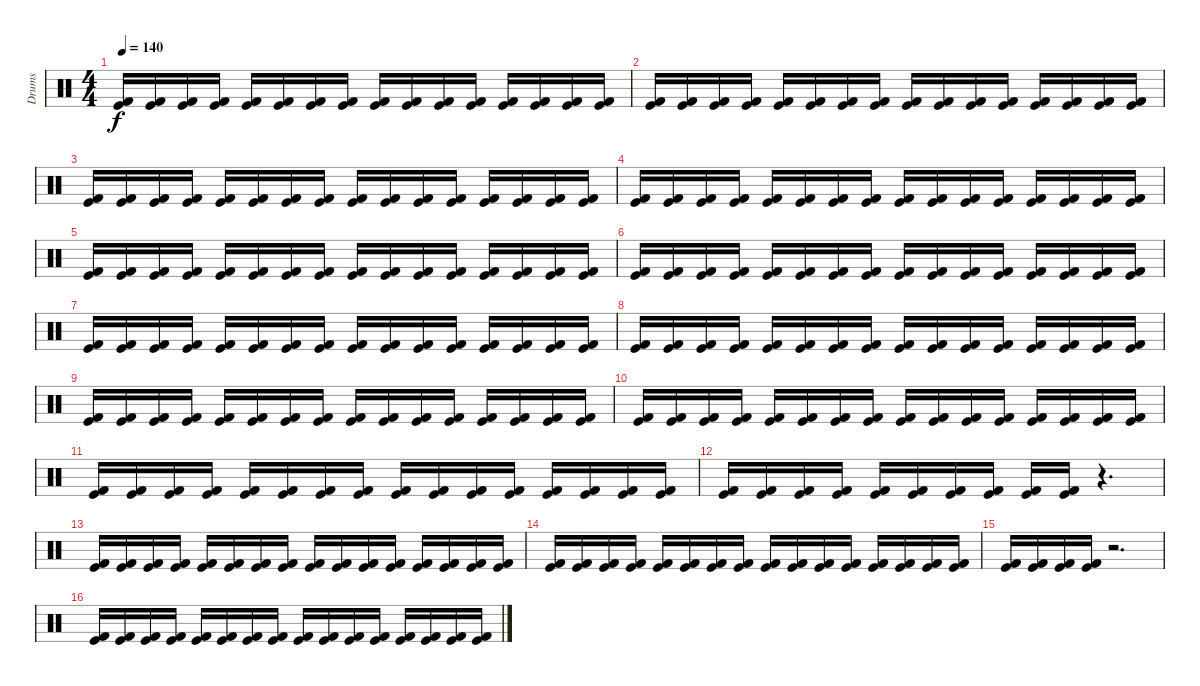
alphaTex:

\track ("Drums" "Drums") {instrument percussion}
\staff {score}
\articulation defaults
\ts (4 4)
\tempo 140
\clef neutral
\ks c
("Kick (hit) 2" "Kick (hit)").16{dy f} ("Kick (hit) 2" "Kick (hit)").16 ("Kick (hit) 2" "Kick (hit)").16 ("Kick (hit) 2" "Kick (hit)").16 ("Kick (hit) 2" "Kick (hit)").16 ("Kick (hit) 2" "Kick (hit)").16 ("Kick (hit) 2" "Kick (hit)").16 ("Kick (hit) 2" "Kick (hit)").16 ("Kick (hit) 2" "Kick (hit)").16 ("Kick (hit) 2" "Kick (hit)").16 ("Kick (hit) 2" "Kick (hit)").16 ("Kick (hit) 2" "Kick (hit)").16 ("Kick (hit) 2" "Kick (hit)").16 ("Kick (hit) 2" "Kick (hit)").16 ("Kick (hit) 2" "Kick (hit)").16 ("Kick (hit) 2" "Kick (hit)").16 |
("Kick (hit) 2" "Kick (hit)").16 ("Kick (hit) 2" "Kick (hit)").16 ("Kick (hit) 2" "Kick (hit)").16 ("Kick (hit) 2" "Kick (hit)").16 ("Kick (hit) 2" "Kick (hit)").16 ("Kick (hit) 2" "Kick (hit)").16 ("Kick (hit) 2" "Kick (hit)").16 ("Kick (hit) 2" "Kick (hit)").16 ("Kick (hit) 2" "Kick (hit)").16 ("Kick (hit) 2" "Kick (hit)").16 ("Kick (hit) 2" "Kick (hit)").16 ("Kick (hit) 2" "Kick (hit)").16 ("Kick (hit) 2" "Kick (hit)").16 ("Kick (hit) 2" "Kick (hit)").16 ("Kick (hit) 2" "Kick (hit)").16 ("Kick (hit) 2" "Kick (hit)").16 |
("Kick (hit) 2" "Kick (hit)").16 ("Kick (hit) 2" "Kick (hit)").16 ("Kick (hit) 2" "Kick (hit)").16 ("Kick (hit) 2" "Kick (hit)").16 ("Kick (hit) 2" "Kick (hit)").16 ("Kick (hit) 2" "Kick (hit)").16 ("Kick (hit) 2" "Kick (hit)").16 ("Kick (hit) 2" "Kick (hit)").16 ("Kick (hit) 2" "Kick (hit)").16 ("Kick (hit) 2" "Kick (hit)").16 ("Kick (hit) 2" "Kick (hit)").16 ("Kick (hit) 2" "Kick (hit)").16 ("Kick (hit) 2" "Kick (hit)").16 ("Kick (hit) 2" "Kick (hit)").16 ("Kick (hit) 2" "Kick (hit)").16 ("Kick (hit) 2" "Kick (hit)").16 |
("Kick (hit) 2" "Kick (hit)").16 ("Kick (hit) 2" "Kick (hit)").16 ("Kick (hit) 2" "Kick (hit)").16 ("Kick (hit) 2" "Kick (hit)").16 ("Kick (hit) 2" "Kick (hit)").16 ("Kick (hit) 2" "Kick (hit)").16 ("Kick (hit) 2" "Kick (hit)").16 ("Kick (hit) 2" "Kick (hit)").16 ("Kick (hit) 2" "Kick (hit)").16 ("Kick (hit) 2" "Kick (hit)").16 ("Kick (hit) 2" "Kick (hit)").16 ("Kick (hit) 2" "Kick (hit)").16 ("Kick (hit) 2" "Kick (hit)").16 ("Kick (hit) 2" "Kick (hit)").16 ("Kick (hit) 2" "Kick (hit)").16 ("Kick (hit) 2" "Kick (hit)").16 |
("Kick (hit) 2" "Kick (hit)").16 ("Kick (hit) 2" "Kick (hit)").16 ("Kick (hit) 2" "Kick (hit)").16 ("Kick (hit) 2" "Kick (hit)").16 ("Kick (hit) 2" "Kick (hit)").16 ("Kick (hit) 2" "Kick (hit)").16 ("Kick (hit) 2" "Kick (hit)").16 ("Kick (hit) 2" "Kick (hit)").16 ("Kick (hit) 2" "Kick (hit)").16 ("Kick (hit) 2" "Kick (hit)").16 ("Kick (hit) 2" "Kick (hit)").16 ("Kick (hit) 2" "Kick (hit)").16 ("Kick (hit) 2" "Kick (hit)").16 ("Kick (hit) 2" "Kick (hit)").16 ("Kick (hit) 2" "Kick (hit)").16 ("Kick (hit) 2" "Kick (hit)").16 |
("Kick (hit) 2" "Kick (hit)").16 ("Kick (hit) 2" "Kick (hit)").16 ("Kick (hit) 2" "Kick (hit)").16 ("Kick (hit) 2" "Kick (hit)").16 ("Kick (hit) 2" "Kick (hit)").16 ("Kick (hit) 2" "Kick (hit)").16 ("Kick (hit) 2" "Kick (hit)").16 ("Kick (hit) 2" "Kick (hit)").16 ("Kick (hit) 2" "Kick (hit)").16 ("Kick (hit) 2" "Kick (hit)").16 ("Kick (hit) 2" "Kick (hit)").16 ("Kick (hit) 2" "Kick (hit)").16 ("Kick (hit) 2" "Kick (hit)").16 ("Kick (hit) 2" "Kick (hit)").16 ("Kick (hit) 2" "Kick (hit)").16 ("Kick (hit) 2" "Kick (hit)").16 |
("Kick (hit) 2" "Kick (hit)").16 ("Kick (hit) 2" "Kick (hit)").16 ("Kick (hit) 2" "Kick (hit)").16 ("Kick (hit) 2" "Kick (hit)").16 ("Kick (hit) 2" "Kick (hit)").16 ("Kick (hit) 2" "Kick (hit)").16 ("Kick (hit) 2" "Kick (hit)").16 ("Kick (hit) 2" "Kick (hit)").16 ("Kick (hit) 2" "Kick (hit)").16 ("Kick (hit) 2" "Kick (hit)").16 ("Kick (hit) 2" "Kick (hit)").16 ("Kick (hit) 2" "Kick (hit)").16 ("Kick (hit) 2" "Kick (hit)").16 ("Kick (hit) 2" "Kick (hit)").16 ("Kick (hit) 2" "Kick (hit)").16 ("Kick (hit) 2" "Kick (hit)").16 |
("Kick (hit) 2" "Kick (hit)").16 ("Kick (hit) 2" "Kick (hit)").16 ("Kick (hit) 2" "Kick (hit)").16 ("Kick (hit) 2" "Kick (hit)").16 ("Kick (hit) 2" "Kick (hit)").16 ("Kick (hit) 2" "Kick (hit)").16 ("Kick (hit) 2" "Kick (hit)").16 ("Kick (hit) 2" "Kick (hit)").16 ("Kick (hit) 2" "Kick (hit)").16 ("Kick (hit) 2" "Kick (hit)").16 ("Kick (hit) 2" "Kick (hit)").16 ("Kick (hit) 2" "Kick (hit)").16 ("Kick (hit) 2" "Kick (hit)").16 ("Kick (hit) 2" "Kick (hit)").16 ("Kick (hit) 2" "Kick (hit)").16 ("Kick (hit) 2" "Kick (hit)").16 |
("Kick (hit) 2" "Kick (hit)").16 ("Kick (hit) 2" "Kick (hit)").16 ("Kick (hit) 2" "Kick (hit)").16 ("Kick (hit) 2" "Kick (hit)").16 ("Kick (hit) 2" "Kick (hit)").16 ("Kick (hit) 2" "Kick (hit)").16 ("Kick (hit) 2" "Kick (hit)").16 ("Kick (hit) 2" "Kick (hit)").16 ("Kick (hit) 2" "Kick (hit)").16 ("Kick (hit) 2" "Kick (hit)").16 ("Kick (hit) 2" "Kick (hit)").16 ("Kick (hit) 2" "Kick (hit)").16 ("Kick (hit) 2" "Kick (hit)").16 ("Kick (hit) 2" "Kick (hit)").16 ("Kick (hit) 2" "Kick (hit)").16 ("Kick (hit) 2" "Kick (hit)").16 |
("Kick (hit) 2" "Kick (hit)").16 ("Kick (hit) 2" "Kick (hit)").16 ("Kick (hit) 2" "Kick (hit)").16 ("Kick (hit) 2" "Kick (hit)").16 ("Kick (hit) 2" "Kick (hit)").16 ("Kick (hit) 2" "Kick (hit)").16 ("Kick (hit) 2" "Kick (hit)").16 ("Kick (hit) 2" "Kick (hit)").16 ("Kick (hit) 2" "Kick (hit)").16 ("Kick (hit) 2" "Kick (hit)").16 ("Kick (hit) 2" "Kick (hit)").16 ("Kick (hit) 2" "Kick (hit)").16 ("Kick (hit) 2" "Kick (hit)").16 ("Kick (hit) 2" "Kick (hit)").16 ("Kick (hit) 2" "Kick (hit)").16 ("Kick (hit) 2" "Kick (hit)").16 |
("Kick (hit) 2" "Kick (hit)").16 ("Kick (hit) 2" "Kick (hit)").16 ("Kick (hit) 2" "Kick (hit)").16 ("Kick (hit) 2" "Kick (hit)").16 ("Kick (hit) 2" "Kick (hit)").16 ("Kick (hit) 2" "Kick (hit)").16 ("Kick (hit) 2" "Kick (hit)").16 ("Kick (hit) 2" "Kick (hit)").16 ("Kick (hit) 2" "Kick (hit)").16 ("Kick (hit) 2" "Kick (hit)").16 ("Kick (hit) 2" "Kick (hit)").16 ("Kick (hit) 2" "Kick (hit)").16 ("Kick (hit) 2" "Kick (hit)").16 ("Kick (hit) 2" "Kick (hit)").16 ("Kick (hit) 2" "Kick (hit)").16 ("Kick (hit) 2" "Kick (hit)").16 |
("Kick (hit) 2" "Kick (hit)").16 ("Kick (hit) 2" "Kick (hit)").16 ("Kick (hit) 2" "Kick (hit)").16 ("Kick (hit) 2" "Kick (hit)").16 ("Kick (hit) 2" "Kick (hit)").16 ("Kick (hit) 2" "Kick (hit)").16 ("Kick (hit) 2" "Kick (hit)").16 ("Kick (hit) 2" "Kick (hit)").16 ("Kick (hit) 2" "Kick (hit)").16 ("Kick (hit) 2" "Kick (hit)").16 r.4{d} |
("Kick (hit) 2" "Kick (hit)").16 ("Kick (hit) 2" "Kick (hit)").16 ("Kick (hit) 2" "Kick (hit)").16 ("Kick (hit) 2" "Kick (hit)").16 ("Kick (hit) 2" "Kick (hit)").16 ("Kick (hit) 2" "Kick (hit)").16 ("Kick (hit) 2" "Kick (hit)").16 ("Kick (hit) 2" "Kick (hit)").16 ("Kick (hit) 2" "Kick (hit)").16 ("Kick (hit) 2" "Kick (hit)").16 ("Kick (hit) 2" "Kick (hit)").16 ("Kick (hit) 2" "Kick (hit)").16 ("Kick (hit) 2" "Kick (hit)").16 ("Kick (hit) 2" "Kick (hit)").16 ("Kick (hit) 2" "Kick (hit)").16 ("Kick (hit) 2" "Kick (hit)").16 |
("Kick (hit) 2" "Kick (hit)").16 ("Kick (hit) 2" "Kick (hit)").16 ("Kick (hit) 2" "Kick (hit)").16 ("Kick (hit) 2" "Kick (hit)").16 ("Kick (hit) 2" "Kick (hit)").16 ("Kick (hit) 2" "Kick (hit)").16 ("Kick (hit) 2" "Kick (hit)").16 ("Kick (hit) 2" "Kick (hit)").16 ("Kick (hit) 2" "Kick (hit)").16 ("Kick (hit) 2" "Kick (hit)").16 ("Kick (hit) 2" "Kick (hit)").16 ("Kick (hit) 2" "Kick (hit)").16 ("Kick (hit) 2" "Kick (hit)").16 ("Kick (hit) 2" "Kick (hit)").16 ("Kick (hit) 2" "Kick (hit)").16 ("Kick (hit) 2" "Kick (hit)").16 |
("Kick (hit) 2" "Kick (hit)").16 ("Kick (hit) 2" "Kick (hit)").16 ("Kick (hit) 2" "Kick (hit)").16 ("Kick (hit) 2" "Kick (hit)").16 r.2{d} |
("Kick (hit) 2" "Kick (hit)").16 ("Kick (hit) 2" "Kick (hit)").16 ("Kick (hit) 2" "Kick (hit)").16 ("Kick (hit) 2" "Kick (hit)").16 ("Kick (hit) 2" "Kick (hit)").16 ("Kick (hit) 2" "Kick (hit)").16 ("Kick (hit) 2" "Kick (hit)").16 ("Kick (hit) 2" "Kick (hit)").16 ("Kick (hit) 2" "Kick (hit)").16 ("Kick (hit) 2" "Kick (hit)").16 ("Kick (hit) 2" "Kick (hit)").16 ("Kick (hit) 2" "Kick (hit)").16 ("Kick (hit) 2" "Kick (hit)").16 ("Kick (hit) 2" "Kick (hit)").16 ("Kick (hit) 2" "Kick (hit)").16 ("Kick (hit) 2" "Kick (hit)").16
